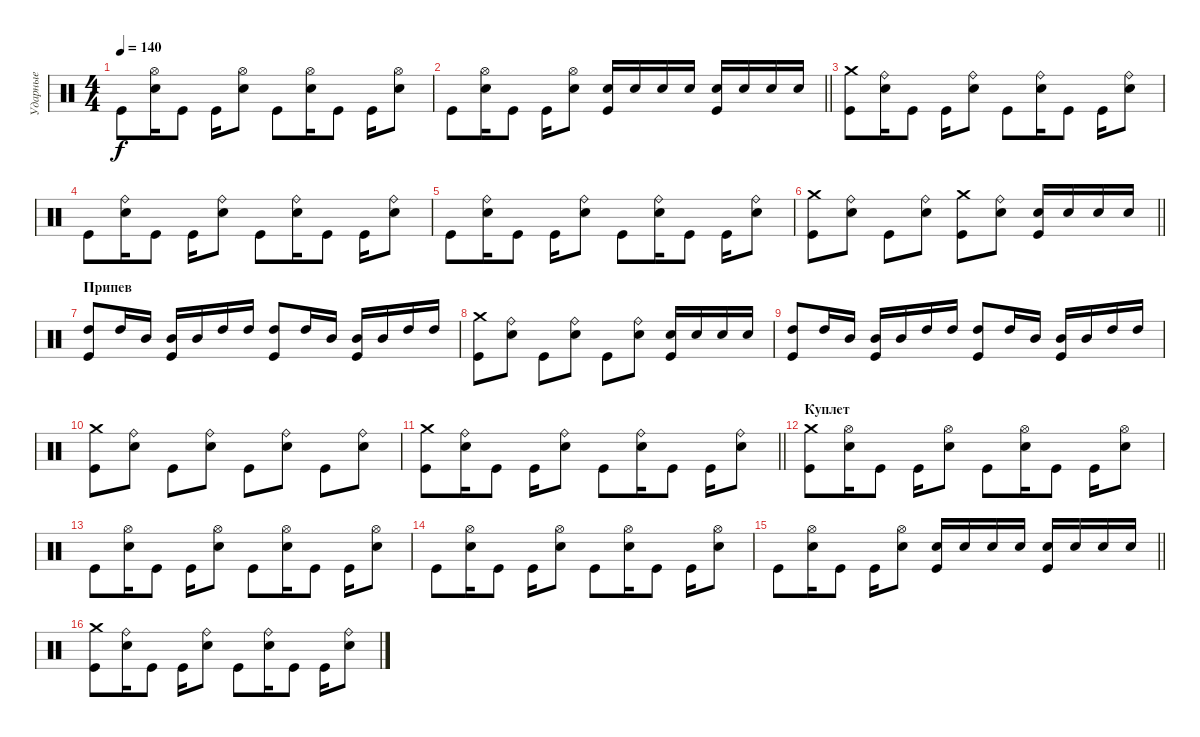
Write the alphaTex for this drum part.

\track ("Ударные" "Ударные") {instrument percussion}
\staff {score}
\articulation defaults
\ts (4 4)
\tempo 140
\clef neutral
\ks c "Kick (hit)".8{dy f}
("Hi-Hat (open)" "Electric Snare (hit)").16 "Kick (hit)".8 "Kick (hit)".16 ("Hi-Hat (open)" "Electric Snare (hit)").8 "Kick (hit)".8 ("Hi-Hat (open)" "Electric Snare (hit)").16 "Kick (hit)".8 "Kick (hit)".16 ("Hi-Hat (open)" "Electric Snare (hit)").8 |
\barLineRight lightlight "Kick (hit)".8
("Hi-Hat (open)" "Electric Snare (hit)").16 "Kick (hit)".8 "Kick (hit)".16 ("Hi-Hat (open)" "Electric Snare (hit)").8 ("Electric Snare (hit)" "Kick (hit)").16 "Electric Snare (hit)".16 "Electric Snare (hit)".16 "Electric Snare (hit)".16 ("Electric Snare (hit)" "Kick (hit)").16 "Electric Snare (hit)".16 "Electric Snare (hit)".16 "Electric Snare (hit)".16 |
\section ("" " ")
("Crash medium (hit)" "Kick (hit)").8 ("Ride (bell)" "Electric Snare (hit)").16 "Kick (hit)".8 "Kick (hit)".16 ("Ride (bell)" "Electric Snare (hit)").8 "Kick (hit)".8 ("Ride (bell)" "Electric Snare (hit)").16 "Kick (hit)".8 "Kick (hit)".16 ("Ride (bell)" "Electric Snare (hit)").8 |
"Kick (hit)".8 ("Ride (bell)" "Electric Snare (hit)").16 "Kick (hit)".8 "Kick (hit)".16 ("Ride (bell)" "Electric Snare (hit)").8 "Kick (hit)".8 ("Ride (bell)" "Electric Snare (hit)").16 "Kick (hit)".8 "Kick (hit)".16 ("Ride (bell)" "Electric Snare (hit)").8 |
"Kick (hit)".8 ("Ride (bell)" "Electric Snare (hit)").16 "Kick (hit)".8 "Kick (hit)".16 ("Ride (bell)" "Electric Snare (hit)").8 "Kick (hit)".8 ("Ride (bell)" "Electric Snare (hit)").16 "Kick (hit)".8 "Kick (hit)".16 ("Ride (bell)" "Electric Snare (hit)").8 |
\barLineRight lightlight
("Crash medium (hit)" "Kick (hit)").8 ("Ride (bell)" "Electric Snare (hit)").8 "Kick (hit)".8 ("Ride (bell)" "Electric Snare (hit)").8 ("Crash medium (hit)" "Kick (hit)").8 ("Ride (bell)" "Electric Snare (hit)").8 ("Electric Snare (hit)" "Kick (hit)").16 "Electric Snare (hit)".16 "Electric Snare (hit)".16 "Electric Snare (hit)".16 |
\section ("" "Припев")
("High Tom (hit)" "Kick (hit)").8 "High Tom (hit)".16 "Mid Tom (hit)".16 ("Mid Tom (hit)" "Kick (hit)").16 "Mid Tom (hit)".16 "High Tom (hit)".16 "High Tom (hit)".16 ("High Tom (hit)" "Kick (hit)").8 "High Tom (hit)".16 "Mid Tom (hit)".16 ("Mid Tom (hit)" "Kick (hit)").16 "Mid Tom (hit)".16 "High Tom (hit)".16 "High Tom (hit)".16 |
("Crash medium (hit)" "Kick (hit)").8 ("Ride (bell)" "Electric Snare (hit)").8 "Kick (hit)".8 ("Ride (bell)" "Electric Snare (hit)").8 "Kick (hit)".8 ("Ride (bell)" "Electric Snare (hit)").8 ("Electric Snare (hit)" "Kick (hit)").16 "Electric Snare (hit)".16 "Electric Snare (hit)".16 "Electric Snare (hit)".16 |
("High Tom (hit)" "Kick (hit)").8 "High Tom (hit)".16 "Mid Tom (hit)".16 ("Mid Tom (hit)" "Kick (hit)").16 "Mid Tom (hit)".16 "High Tom (hit)".16 "High Tom (hit)".16 ("High Tom (hit)" "Kick (hit)").8 "High Tom (hit)".16 "Mid Tom (hit)".16 ("Mid Tom (hit)" "Kick (hit)").16 "Mid Tom (hit)".16 "High Tom (hit)".16 "High Tom (hit)".16 |
("Crash medium (hit)" "Kick (hit)").8 ("Ride (bell)" "Electric Snare (hit)").8 "Kick (hit)".8 ("Ride (bell)" "Electric Snare (hit)").8 "Kick (hit)".8 ("Ride (bell)" "Electric Snare (hit)").8 "Kick (hit)".8 ("Ride (bell)" "Electric Snare (hit)").8 |
\barLineRight lightlight
("Crash medium (hit)" "Kick (hit)").8 ("Ride (bell)" "Electric Snare (hit)").16 "Kick (hit)".8 "Kick (hit)".16 ("Ride (bell)" "Electric Snare (hit)").8 "Kick (hit)".8 ("Ride (bell)" "Electric Snare (hit)").16 "Kick (hit)".8 "Kick (hit)".16 ("Ride (bell)" "Electric Snare (hit)").8 |
\section ("" "Куплет")
("Crash medium (hit)" "Kick (hit)").8 ("Hi-Hat (open)" "Electric Snare (hit)").16 "Kick (hit)".8 "Kick (hit)".16 ("Hi-Hat (open)" "Electric Snare (hit)").8 "Kick (hit)".8 ("Hi-Hat (open)" "Electric Snare (hit)").16 "Kick (hit)".8 "Kick (hit)".16 ("Hi-Hat (open)" "Electric Snare (hit)").8 |
"Kick (hit)".8 ("Hi-Hat (open)" "Electric Snare (hit)").16 "Kick (hit)".8 "Kick (hit)".16 ("Hi-Hat (open)" "Electric Snare (hit)").8 "Kick (hit)".8 ("Hi-Hat (open)" "Electric Snare (hit)").16 "Kick (hit)".8 "Kick (hit)".16 ("Hi-Hat (open)" "Electric Snare (hit)").8 |
"Kick (hit)".8 ("Hi-Hat (open)" "Electric Snare (hit)").16 "Kick (hit)".8 "Kick (hit)".16 ("Hi-Hat (open)" "Electric Snare (hit)").8 "Kick (hit)".8 ("Hi-Hat (open)" "Electric Snare (hit)").16 "Kick (hit)".8 "Kick (hit)".16 ("Hi-Hat (open)" "Electric Snare (hit)").8 |
\barLineRight lightlight "Kick (hit)".8
("Hi-Hat (open)" "Electric Snare (hit)").16 "Kick (hit)".8 "Kick (hit)".16 ("Hi-Hat (open)" "Electric Snare (hit)").8 ("Electric Snare (hit)" "Kick (hit)").16 "Electric Snare (hit)".16 "Electric Snare (hit)".16 "Electric Snare (hit)".16 ("Electric Snare (hit)" "Kick (hit)").16 "Electric Snare (hit)".16 "Electric Snare (hit)".16 "Electric Snare (hit)".16 |
\section ("" " ")
("Crash medium (hit)" "Kick (hit)").8 ("Ride (bell)" "Electric Snare (hit)").16 "Kick (hit)".8 "Kick (hit)".16 ("Ride (bell)" "Electric Snare (hit)").8 "Kick (hit)".8 ("Ride (bell)" "Electric Snare (hit)").16 "Kick (hit)".8 "Kick (hit)".16 ("Ride (bell)" "Electric Snare (hit)").8
